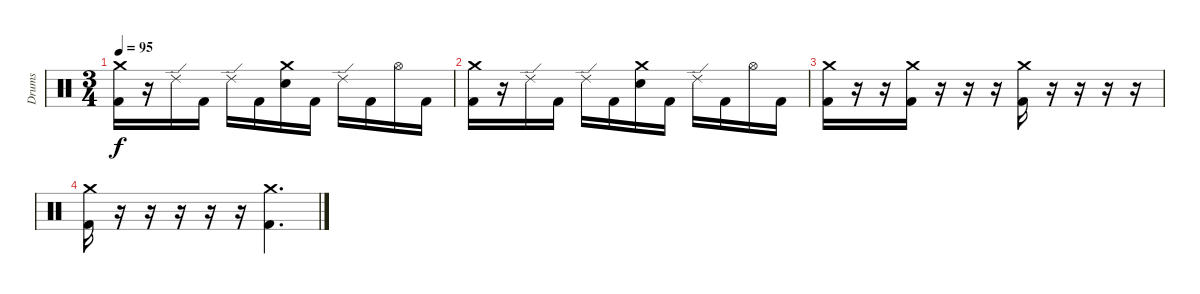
\track ("Drums" "Drums") {instrument percussion}
\staff {score}
\articulation defaults
\ts (3 4)
\tempo 95
\clef neutral
\ks c
("Crash medium (hit)" "Kick (hit) 2").16{dy f} r.16 "Ride (edge) 2".16 "Kick (hit) 2".16 "Ride (edge) 2".16 "Kick (hit) 2".16 ("Crash medium (hit)" "Electric Snare (hit)").16 "Kick (hit) 2".16 "Ride (edge) 2".16 "Kick (hit) 2".16 "Hi-Hat (open)".16 "Kick (hit) 2".16 |
("Crash medium (hit)" "Kick (hit) 2").16 r.16 "Ride (edge) 2".16 "Kick (hit) 2".16 "Ride (edge) 2".16 "Kick (hit) 2".16 ("Crash medium (hit)" "Electric Snare (hit)").16 "Kick (hit) 2".16 "Ride (edge) 2".16 "Kick (hit) 2".16 "Hi-Hat (open)".16 "Kick (hit) 2".16 |
("Crash medium (hit)" "Kick (hit) 2").16 r.16 r.16 ("Crash medium (hit)" "Kick (hit) 2").16 r.16 r.16 r.16 ("Crash medium (hit)" "Kick (hit) 2").16 r.16 r.16 r.16 r.16 |
("Crash medium (hit)" "Kick (hit) 2").16 r.16 r.16 r.16 r.16 r.16 ("Crash medium (hit)" "Kick (hit) 2").4{d}
